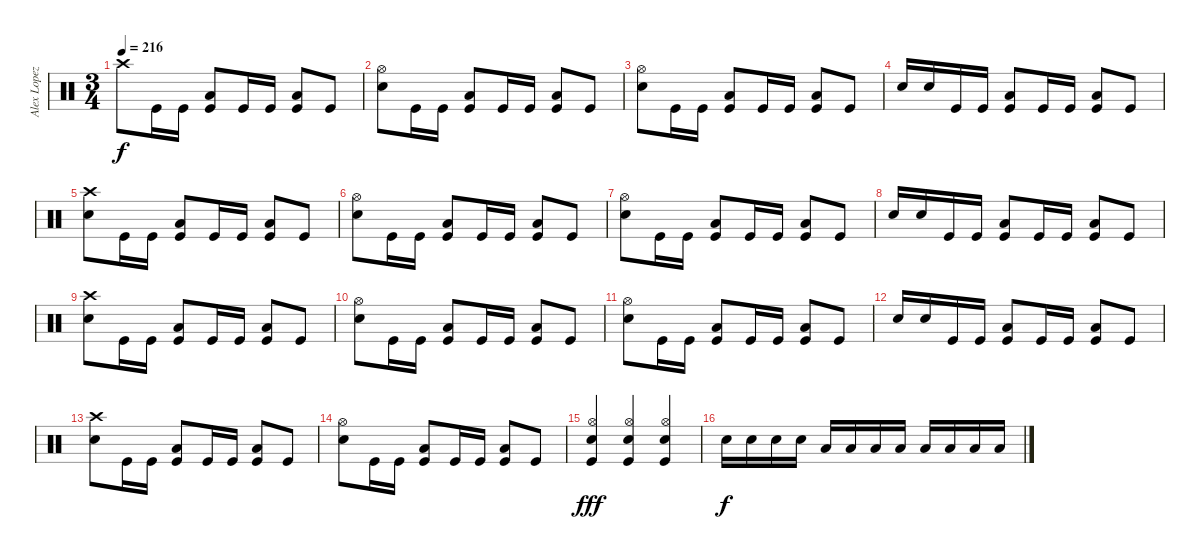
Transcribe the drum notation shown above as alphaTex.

\track ("Alex Lopez" "Alex Lopez") {instrument percussion}
\staff {score}
\articulation defaults
\ts (3 4)
\tempo 216
\clef neutral
\ks c "Crash high (hit)".8{dy f} "Kick (hit)".16 "Kick (hit)".16
("Low Tom (hit)" "Kick (hit)").8 "Kick (hit)".16 "Kick (hit)".16 ("Low Floor Tom (hit)" "Kick (hit)").8 "Kick (hit)".8 |
("Hi-Hat (open)" "Electric Snare (hit)").8 "Kick (hit)".16 "Kick (hit)".16 ("Low Tom (hit)" "Kick (hit)").8 "Kick (hit)".16 "Kick (hit)".16 ("Low Floor Tom (hit)" "Kick (hit)").8 "Kick (hit)".8 |
("Hi-Hat (open)" "Electric Snare (hit)").8 "Kick (hit)".16 "Kick (hit)".16 ("Low Tom (hit)" "Kick (hit)").8 "Kick (hit)".16 "Kick (hit)".16 ("Low Floor Tom (hit)" "Kick (hit)").8 "Kick (hit)".8 |
"Electric Snare (hit)".16 "Electric Snare (hit)".16 "Kick (hit)".16 "Kick (hit)".16 ("Low Tom (hit)" "Kick (hit)").8 "Kick (hit)".16 "Kick (hit)".16 ("Low Tom (hit)" "Kick (hit)").8 "Kick (hit)".8 |
("Crash high (hit)" "Electric Snare (hit)").8 "Kick (hit)".16 "Kick (hit)".16 ("Low Tom (hit)" "Kick (hit)").8 "Kick (hit)".16 "Kick (hit)".16 ("Low Floor Tom (hit)" "Kick (hit)").8 "Kick (hit)".8 |
("Hi-Hat (open)" "Electric Snare (hit)").8 "Kick (hit)".16 "Kick (hit)".16 ("Low Tom (hit)" "Kick (hit)").8 "Kick (hit)".16 "Kick (hit)".16 ("Low Floor Tom (hit)" "Kick (hit)").8 "Kick (hit)".8 |
("Hi-Hat (open)" "Electric Snare (hit)").8 "Kick (hit)".16 "Kick (hit)".16 ("Low Tom (hit)" "Kick (hit)").8 "Kick (hit)".16 "Kick (hit)".16 ("Low Floor Tom (hit)" "Kick (hit)").8 "Kick (hit)".8 |
"Electric Snare (hit)".16 "Electric Snare (hit)".16 "Kick (hit)".16 "Kick (hit)".16 ("Low Tom (hit)" "Kick (hit)").8 "Kick (hit)".16 "Kick (hit)".16 ("Low Tom (hit)" "Kick (hit)").8 "Kick (hit)".8 |
("Crash high (hit)" "Electric Snare (hit)").8 "Kick (hit)".16 "Kick (hit)".16 ("Low Tom (hit)" "Kick (hit)").8 "Kick (hit)".16 "Kick (hit)".16 ("Low Floor Tom (hit)" "Kick (hit)").8 "Kick (hit)".8 |
("Hi-Hat (open)" "Electric Snare (hit)").8 "Kick (hit)".16 "Kick (hit)".16 ("Low Tom (hit)" "Kick (hit)").8 "Kick (hit)".16 "Kick (hit)".16 ("Low Floor Tom (hit)" "Kick (hit)").8 "Kick (hit)".8 |
("Hi-Hat (open)" "Electric Snare (hit)").8 "Kick (hit)".16 "Kick (hit)".16 ("Low Tom (hit)" "Kick (hit)").8 "Kick (hit)".16 "Kick (hit)".16 ("Low Floor Tom (hit)" "Kick (hit)").8 "Kick (hit)".8 |
"Electric Snare (hit)".16 "Electric Snare (hit)".16 "Kick (hit)".16 "Kick (hit)".16 ("Low Tom (hit)" "Kick (hit)").8 "Kick (hit)".16 "Kick (hit)".16 ("Low Tom (hit)" "Kick (hit)").8 "Kick (hit)".8 |
("Crash high (hit)" "Electric Snare (hit)").8 "Kick (hit)".16 "Kick (hit)".16 ("Low Tom (hit)" "Kick (hit)").8 "Kick (hit)".16 "Kick (hit)".16 ("Low Floor Tom (hit)" "Kick (hit)").8 "Kick (hit)".8 |
("Hi-Hat (open)" "Electric Snare (hit)").8 "Kick (hit)".16 "Kick (hit)".16 ("Low Tom (hit)" "Kick (hit)").8 "Kick (hit)".16 "Kick (hit)".16 ("Low Floor Tom (hit)" "Kick (hit)").8 "Kick (hit)".8 |
("Hi-Hat (open)" "Electric Snare (hit)" "Kick (hit)").4{dy fff} ("Hi-Hat (open)" "Electric Snare (hit)" "Kick (hit)").4 ("Hi-Hat (open)" "Electric Snare (hit)" "Kick (hit)").4 |
"Electric Snare (hit)".16{dy f} "Electric Snare (hit)".16 "Electric Snare (hit)".16 "Electric Snare (hit)".16 "Low Tom (hit)".16 "Low Tom (hit)".16 "Low Tom (hit)".16 "Low Tom (hit)".16 "Low Floor Tom (hit)".16 "Low Floor Tom (hit)".16 "Low Floor Tom (hit)".16 "Low Floor Tom (hit)".16
